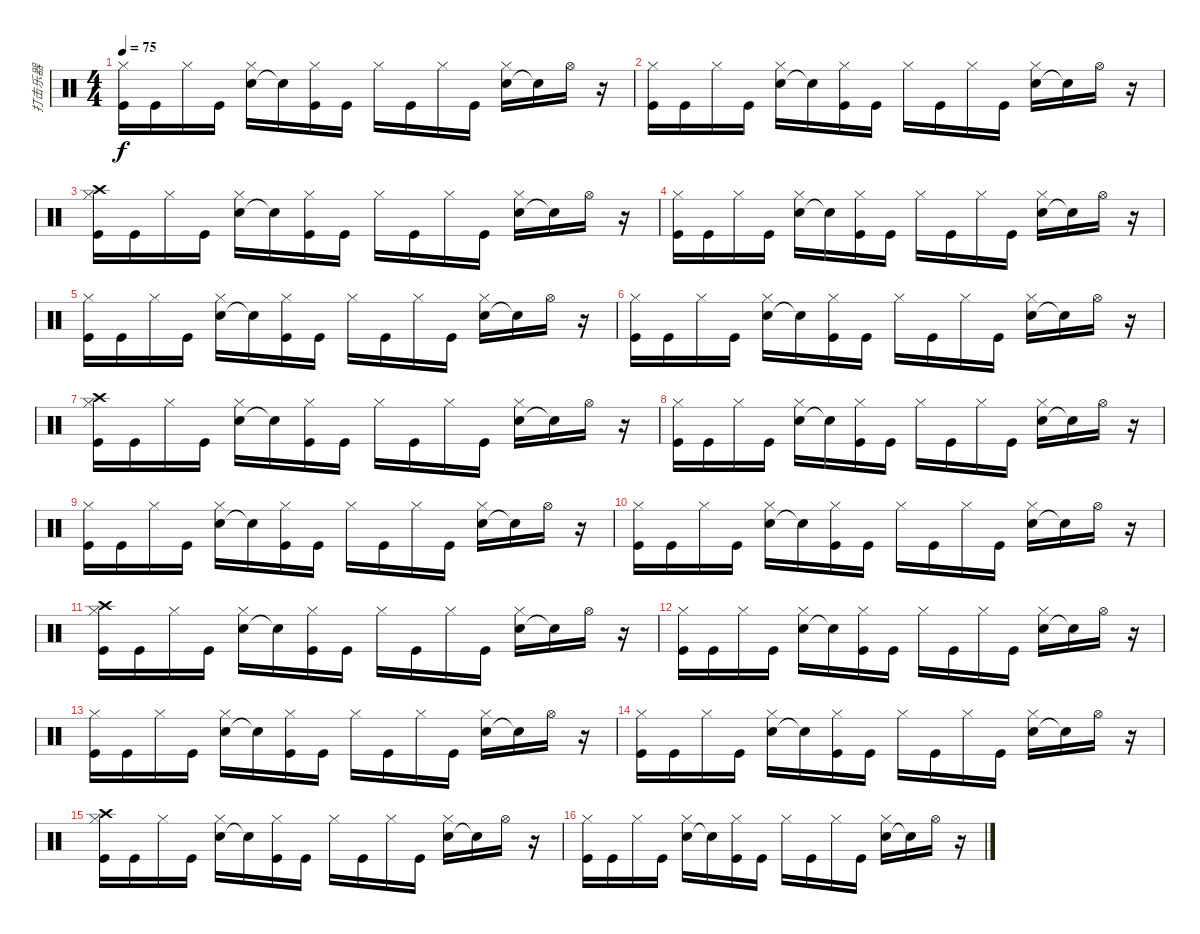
\track ("打击乐器" "打击乐器") {instrument percussion}
\staff {score}
\articulation defaults
\ts (4 4)
\tempo 75
\clef neutral
\ks c
("Kick (hit)" "Hi-Hat (closed)").16{dy f} "Kick (hit)".16 "Hi-Hat (closed)".16 "Kick (hit)".16 ("Electric Snare (hit)" "Hi-Hat (closed)").16 "Electric Snare (hit)"{t}.16 ("Kick (hit)" "Hi-Hat (closed)").16 "Kick (hit)".16 "Hi-Hat (closed)".16 "Kick (hit)".16 "Hi-Hat (closed)".16 "Kick (hit)".16 ("Electric Snare (hit)" "Hi-Hat (closed)").16 "Electric Snare (hit)"{t}.16 "Hi-Hat (open)".16 r.16 |
("Kick (hit)" "Hi-Hat (closed)").16 "Kick (hit)".16 "Hi-Hat (closed)".16 "Kick (hit)".16 ("Electric Snare (hit)" "Hi-Hat (closed)").16 "Electric Snare (hit)"{t}.16 ("Kick (hit)" "Hi-Hat (closed)").16 "Kick (hit)".16 "Hi-Hat (closed)".16 "Kick (hit)".16 "Hi-Hat (closed)".16 "Kick (hit)".16 ("Electric Snare (hit)" "Hi-Hat (closed)").16 "Electric Snare (hit)"{t}.16 "Hi-Hat (open)".16 r.16 |
("Crash high (hit)" "Kick (hit)" "Hi-Hat (closed)").16 "Kick (hit)".16 "Hi-Hat (closed)".16 "Kick (hit)".16 ("Electric Snare (hit)" "Hi-Hat (closed)").16 "Electric Snare (hit)"{t}.16 ("Kick (hit)" "Hi-Hat (closed)").16 "Kick (hit)".16 "Hi-Hat (closed)".16 "Kick (hit)".16 "Hi-Hat (closed)".16 "Kick (hit)".16 ("Electric Snare (hit)" "Hi-Hat (closed)").16 "Electric Snare (hit)"{t}.16 "Hi-Hat (open)".16 r.16 |
("Kick (hit)" "Hi-Hat (closed)").16 "Kick (hit)".16 "Hi-Hat (closed)".16 "Kick (hit)".16 ("Electric Snare (hit)" "Hi-Hat (closed)").16 "Electric Snare (hit)"{t}.16 ("Kick (hit)" "Hi-Hat (closed)").16 "Kick (hit)".16 "Hi-Hat (closed)".16 "Kick (hit)".16 "Hi-Hat (closed)".16 "Kick (hit)".16 ("Electric Snare (hit)" "Hi-Hat (closed)").16 "Electric Snare (hit)"{t}.16 "Hi-Hat (open)".16 r.16 |
("Kick (hit)" "Hi-Hat (closed)").16 "Kick (hit)".16 "Hi-Hat (closed)".16 "Kick (hit)".16 ("Electric Snare (hit)" "Hi-Hat (closed)").16 "Electric Snare (hit)"{t}.16 ("Kick (hit)" "Hi-Hat (closed)").16 "Kick (hit)".16 "Hi-Hat (closed)".16 "Kick (hit)".16 "Hi-Hat (closed)".16 "Kick (hit)".16 ("Electric Snare (hit)" "Hi-Hat (closed)").16 "Electric Snare (hit)"{t}.16 "Hi-Hat (open)".16 r.16 |
("Kick (hit)" "Hi-Hat (closed)").16 "Kick (hit)".16 "Hi-Hat (closed)".16 "Kick (hit)".16 ("Electric Snare (hit)" "Hi-Hat (closed)").16 "Electric Snare (hit)"{t}.16 ("Kick (hit)" "Hi-Hat (closed)").16 "Kick (hit)".16 "Hi-Hat (closed)".16 "Kick (hit)".16 "Hi-Hat (closed)".16 "Kick (hit)".16 ("Electric Snare (hit)" "Hi-Hat (closed)").16 "Electric Snare (hit)"{t}.16 "Hi-Hat (open)".16 r.16 |
("Crash high (hit)" "Kick (hit)" "Hi-Hat (closed)").16 "Kick (hit)".16 "Hi-Hat (closed)".16 "Kick (hit)".16 ("Electric Snare (hit)" "Hi-Hat (closed)").16 "Electric Snare (hit)"{t}.16 ("Kick (hit)" "Hi-Hat (closed)").16 "Kick (hit)".16 "Hi-Hat (closed)".16 "Kick (hit)".16 "Hi-Hat (closed)".16 "Kick (hit)".16 ("Electric Snare (hit)" "Hi-Hat (closed)").16 "Electric Snare (hit)"{t}.16 "Hi-Hat (open)".16 r.16 |
("Kick (hit)" "Hi-Hat (closed)").16 "Kick (hit)".16 "Hi-Hat (closed)".16 "Kick (hit)".16 ("Electric Snare (hit)" "Hi-Hat (closed)").16 "Electric Snare (hit)"{t}.16 ("Kick (hit)" "Hi-Hat (closed)").16 "Kick (hit)".16 "Hi-Hat (closed)".16 "Kick (hit)".16 "Hi-Hat (closed)".16 "Kick (hit)".16 ("Electric Snare (hit)" "Hi-Hat (closed)").16 "Electric Snare (hit)"{t}.16 "Hi-Hat (open)".16 r.16 |
("Kick (hit)" "Hi-Hat (closed)").16 "Kick (hit)".16 "Hi-Hat (closed)".16 "Kick (hit)".16 ("Electric Snare (hit)" "Hi-Hat (closed)").16 "Electric Snare (hit)"{t}.16 ("Kick (hit)" "Hi-Hat (closed)").16 "Kick (hit)".16 "Hi-Hat (closed)".16 "Kick (hit)".16 "Hi-Hat (closed)".16 "Kick (hit)".16 ("Electric Snare (hit)" "Hi-Hat (closed)").16 "Electric Snare (hit)"{t}.16 "Hi-Hat (open)".16 r.16 |
("Kick (hit)" "Hi-Hat (closed)").16 "Kick (hit)".16 "Hi-Hat (closed)".16 "Kick (hit)".16 ("Electric Snare (hit)" "Hi-Hat (closed)").16 "Electric Snare (hit)"{t}.16 ("Kick (hit)" "Hi-Hat (closed)").16 "Kick (hit)".16 "Hi-Hat (closed)".16 "Kick (hit)".16 "Hi-Hat (closed)".16 "Kick (hit)".16 ("Electric Snare (hit)" "Hi-Hat (closed)").16 "Electric Snare (hit)"{t}.16 "Hi-Hat (open)".16 r.16 |
("Crash high (hit)" "Kick (hit)" "Hi-Hat (closed)").16 "Kick (hit)".16 "Hi-Hat (closed)".16 "Kick (hit)".16 ("Electric Snare (hit)" "Hi-Hat (closed)").16 "Electric Snare (hit)"{t}.16 ("Kick (hit)" "Hi-Hat (closed)").16 "Kick (hit)".16 "Hi-Hat (closed)".16 "Kick (hit)".16 "Hi-Hat (closed)".16 "Kick (hit)".16 ("Electric Snare (hit)" "Hi-Hat (closed)").16 "Electric Snare (hit)"{t}.16 "Hi-Hat (open)".16 r.16 |
("Kick (hit)" "Hi-Hat (closed)").16 "Kick (hit)".16 "Hi-Hat (closed)".16 "Kick (hit)".16 ("Electric Snare (hit)" "Hi-Hat (closed)").16 "Electric Snare (hit)"{t}.16 ("Kick (hit)" "Hi-Hat (closed)").16 "Kick (hit)".16 "Hi-Hat (closed)".16 "Kick (hit)".16 "Hi-Hat (closed)".16 "Kick (hit)".16 ("Electric Snare (hit)" "Hi-Hat (closed)").16 "Electric Snare (hit)"{t}.16 "Hi-Hat (open)".16 r.16 |
("Kick (hit)" "Hi-Hat (closed)").16 "Kick (hit)".16 "Hi-Hat (closed)".16 "Kick (hit)".16 ("Electric Snare (hit)" "Hi-Hat (closed)").16 "Electric Snare (hit)"{t}.16 ("Kick (hit)" "Hi-Hat (closed)").16 "Kick (hit)".16 "Hi-Hat (closed)".16 "Kick (hit)".16 "Hi-Hat (closed)".16 "Kick (hit)".16 ("Electric Snare (hit)" "Hi-Hat (closed)").16 "Electric Snare (hit)"{t}.16 "Hi-Hat (open)".16 r.16 |
("Kick (hit)" "Hi-Hat (closed)").16 "Kick (hit)".16 "Hi-Hat (closed)".16 "Kick (hit)".16 ("Electric Snare (hit)" "Hi-Hat (closed)").16 "Electric Snare (hit)"{t}.16 ("Kick (hit)" "Hi-Hat (closed)").16 "Kick (hit)".16 "Hi-Hat (closed)".16 "Kick (hit)".16 "Hi-Hat (closed)".16 "Kick (hit)".16 ("Electric Snare (hit)" "Hi-Hat (closed)").16 "Electric Snare (hit)"{t}.16 "Hi-Hat (open)".16 r.16 |
("Crash high (hit)" "Kick (hit)" "Hi-Hat (closed)").16 "Kick (hit)".16 "Hi-Hat (closed)".16 "Kick (hit)".16 ("Electric Snare (hit)" "Hi-Hat (closed)").16 "Electric Snare (hit)"{t}.16 ("Kick (hit)" "Hi-Hat (closed)").16 "Kick (hit)".16 "Hi-Hat (closed)".16 "Kick (hit)".16 "Hi-Hat (closed)".16 "Kick (hit)".16 ("Electric Snare (hit)" "Hi-Hat (closed)").16 "Electric Snare (hit)"{t}.16 "Hi-Hat (open)".16 r.16 |
("Kick (hit)" "Hi-Hat (closed)").16 "Kick (hit)".16 "Hi-Hat (closed)".16 "Kick (hit)".16 ("Electric Snare (hit)" "Hi-Hat (closed)").16 "Electric Snare (hit)"{t}.16 ("Kick (hit)" "Hi-Hat (closed)").16 "Kick (hit)".16 "Hi-Hat (closed)".16 "Kick (hit)".16 "Hi-Hat (closed)".16 "Kick (hit)".16 ("Electric Snare (hit)" "Hi-Hat (closed)").16 "Electric Snare (hit)"{t}.16 "Hi-Hat (open)".16 r.16
